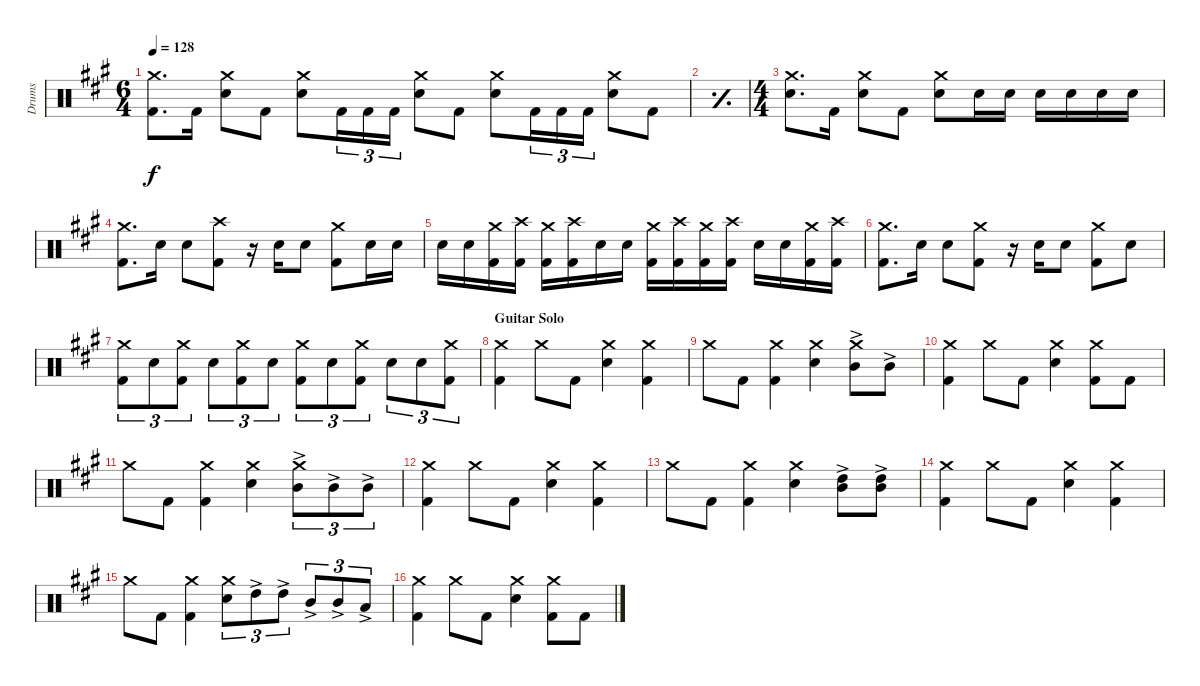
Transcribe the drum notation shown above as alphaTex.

\defaultSystemsLayout 4
\bracketExtendMode groupsimilarinstruments
\otherSystemsTrackNameOrientation horizontal
\track ("Drumkit" "Drums") {multiBarRest instrument percussion}
\staff {score}
\articulation defaults
\ts (6 4)
\beaming (8 2 2 2 2 2 2)
\tempo 128
\clef neutral
\ks a
("Crash medium (hit)"{acc forcenatural} "Kick (hit) 2"{acc forcenatural}).8{d dy f} "Kick (hit) 2"{acc forcenatural}.16 ("Crash medium (hit)"{acc forcenatural} "Snare (hit) 2"{acc forcenatural}).8 "Kick (hit) 2"{acc forcenatural}.8 ("Crash medium (hit)"{acc forcenatural} "Snare (hit) 2"{acc forcenatural}).8{beam merge} "Kick (hit) 2"{acc forcenatural}.16{tu (3 2)} "Kick (hit) 2"{acc forcenatural}.16{tu (3 2)} "Kick (hit) 2"{acc forcenatural}.16{tu (3 2)} ("Crash medium (hit)"{acc forcenatural} "Snare (hit) 2"{acc forcenatural}).8 "Kick (hit) 2"{acc forcenatural}.8 ("Crash medium (hit)"{acc forcenatural} "Snare (hit) 2"{acc forcenatural}).8{beam merge} "Kick (hit) 2"{acc forcenatural}.16{tu (3 2)} "Kick (hit) 2"{acc forcenatural}.16{tu (3 2)} "Kick (hit) 2"{acc forcenatural}.16{tu (3 2)} ("Crash medium (hit)"{acc forcenatural} "Snare (hit) 2"{acc forcenatural}).8 "Kick (hit) 2"{acc forcenatural}.8 |
\simile simple
|
\ts (4 4)
\beaming (8 2 2 2 2 2 2)
\simile none
("Crash medium (hit)"{acc forcenatural} "Snare (hit) 2"{acc forcenatural}).8{d} "Kick (hit) 2"{acc forcenatural}.16 ("Crash medium (hit)"{acc forcenatural} "Snare (hit) 2"{acc forcenatural}).8 "Kick (hit) 2"{acc forcenatural}.8 ("Crash medium (hit)"{acc forcenatural} "Snare (hit) 2"{acc forcenatural}).8 "Snare (hit) 2"{acc forcenatural}.16 "Snare (hit) 2"{acc forcenatural}.16 "Snare (hit) 2"{acc forcenatural}.16 "Snare (hit) 2"{acc forcenatural}.16 "Snare (hit) 2"{acc forcenatural}.16 "Snare (hit) 2"{acc forcenatural}.16 |
("Crash medium (hit)"{acc forcenatural} "Kick (hit) 2"{acc forcenatural}).8{d} "Snare (hit) 2"{acc forcenatural}.16 "Snare (hit) 2"{acc forcenatural}.8 ("Kick (hit) 2"{acc forcenatural} "Crash high (hit)"{acc forcenatural}).8 r.16 "Snare (hit) 2"{acc forcenatural}.16 "Snare (hit) 2"{acc forcenatural}.8 ("Crash medium (hit)"{acc forcenatural} "Kick (hit) 2"{acc forcenatural}).8 "Snare (hit) 2"{acc forcenatural}.16 "Snare (hit) 2"{acc forcenatural}.16 |
"Snare (hit) 2"{acc forcenatural}.16 "Snare (hit) 2"{acc forcenatural}.16 ("Crash medium (hit)"{acc forcenatural} "Kick (hit) 2"{acc forcenatural}).16 ("Kick (hit) 2"{acc forcenatural} "Crash high (hit)"{acc forcenatural}).16 ("Kick (hit) 2"{acc forcenatural} "Crash medium (hit)"{acc forcenatural}).16 ("Kick (hit) 2"{acc forcenatural} "Crash high (hit)"{acc forcenatural}).16 "Snare (hit) 2"{acc forcenatural}.16 "Snare (hit) 2"{acc forcenatural}.16 ("Crash medium (hit)"{acc forcenatural} "Kick (hit) 2"{acc forcenatural}).16 ("Kick (hit) 2"{acc forcenatural} "Crash high (hit)"{acc forcenatural}).16 ("Kick (hit) 2"{acc forcenatural} "Crash medium (hit)"{acc forcenatural}).16 ("Kick (hit) 2"{acc forcenatural} "Crash high (hit)"{acc forcenatural}).16 "Snare (hit) 2"{acc forcenatural}.16 "Snare (hit) 2"{acc forcenatural}.16 ("Crash medium (hit)"{acc forcenatural} "Kick (hit) 2"{acc forcenatural}).16 ("Kick (hit) 2"{acc forcenatural} "Crash high (hit)"{acc forcenatural}).16 |
("Crash medium (hit)"{acc forcenatural} "Kick (hit) 2"{acc forcenatural}).8{d} "Snare (hit) 2"{acc forcenatural}.16 "Snare (hit) 2"{acc forcenatural}.8 ("Crash medium (hit)"{acc forcenatural} "Kick (hit) 2"{acc forcenatural}).8 r.16 "Snare (hit) 2"{acc forcenatural}.16 "Snare (hit) 2"{acc forcenatural}.8 ("Crash medium (hit)"{acc forcenatural} "Kick (hit) 2"{acc forcenatural}).8 "Snare (hit) 2"{acc forcenatural}.8 |
("Crash medium (hit)"{acc forcenatural} "Kick (hit) 2"{acc forcenatural}).8{tu (3 2)} "Snare (hit) 2"{acc forcenatural}.8{tu (3 2)} ("Crash medium (hit)"{acc forcenatural} "Kick (hit) 2"{acc forcenatural}).8{tu (3 2)} "Snare (hit) 2"{acc forcenatural}.8{tu (3 2)} ("Crash medium (hit)"{acc forcenatural} "Kick (hit) 2"{acc forcenatural}).8{tu (3 2)} "Snare (hit) 2"{acc forcenatural}.8{tu (3 2)} ("Crash medium (hit)"{acc forcenatural} "Kick (hit) 2"{acc forcenatural}).8{tu (3 2)} "Snare (hit) 2"{acc forcenatural}.8{tu (3 2)} ("Crash medium (hit)"{acc forcenatural} "Kick (hit) 2"{acc forcenatural}).8{tu (3 2)} "Snare (hit) 2"{acc forcenatural}.8{tu (3 2)} "Snare (hit) 2"{acc forcenatural}.8{tu (3 2)} ("Crash medium (hit)"{acc forcenatural} "Kick (hit) 2"{acc forcenatural}).8{tu (3 2)} |
\section ("" "Guitar Solo")
("Crash medium (hit)"{acc forcenatural} "Kick (hit) 2"{acc forcenatural}).4 "Crash medium (hit)"{acc forcenatural}.8 "Kick (hit) 2"{acc forcenatural}.8 ("Crash medium (hit)"{acc forcenatural} "Snare (hit) 2"{acc forcenatural}).4 ("Crash medium (hit)"{acc forcenatural} "Kick (hit) 2"{acc forcenatural}).4 |
"Crash medium (hit)"{acc forcenatural}.8 "Kick (hit) 2"{acc forcenatural}.8 ("Crash medium (hit)"{acc forcenatural} "Kick (hit) 2"{acc forcenatural}).4 ("Crash medium (hit)"{acc forcenatural} "Snare (hit) 2"{acc forcenatural}).4 ("Crash medium (hit)"{acc forcenatural} "Mid Tom (hit)"{ac acc forcenatural}).8 "Mid Tom (hit)"{ac acc forcenatural}.8 |
("Crash medium (hit)"{acc forcenatural} "Kick (hit) 2"{acc forcenatural}).4 "Crash medium (hit)"{acc forcenatural}.8 "Kick (hit) 2"{acc forcenatural}.8 ("Crash medium (hit)"{acc forcenatural} "Snare (hit) 2"{acc forcenatural}).4 ("Crash medium (hit)"{acc forcenatural} "Kick (hit) 2"{acc forcenatural}).8 "Kick (hit) 2"{acc forcenatural}.8 |
"Crash medium (hit)"{acc forcenatural}.8 "Kick (hit) 2"{acc forcenatural}.8 ("Crash medium (hit)"{acc forcenatural} "Kick (hit) 2"{acc forcenatural}).4 ("Crash medium (hit)"{acc forcenatural} "Snare (hit) 2"{acc forcenatural}).4 ("Crash medium (hit)"{acc forcenatural} "Mid Tom (hit)"{ac acc forcenatural}).8{tu (3 2)} "Mid Tom (hit)"{ac acc forcenatural}.8{tu (3 2)} "Mid Tom (hit)"{ac acc forcenatural}.8{tu (3 2)} |
("Crash medium (hit)"{acc forcenatural} "Kick (hit) 2"{acc forcenatural}).4 "Crash medium (hit)"{acc forcenatural}.8 "Kick (hit) 2"{acc forcenatural}.8 ("Crash medium (hit)"{acc forcenatural} "Snare (hit) 2"{acc forcenatural}).4 ("Crash medium (hit)"{acc forcenatural} "Kick (hit) 2"{acc forcenatural}).4 |
"Crash medium (hit)"{acc forcenatural}.8 "Kick (hit) 2"{acc forcenatural}.8 ("Crash medium (hit)"{acc forcenatural} "Kick (hit) 2"{acc forcenatural}).4 ("Crash medium (hit)"{acc forcenatural} "Snare (hit) 2"{acc forcenatural}).4 ("High Tom (hit)"{ac acc forcenatural} "Mid Tom (hit)"{ac acc forcenatural}).8 ("High Tom (hit)"{ac acc forcenatural} "Mid Tom (hit)"{ac acc forcenatural}).8 |
("Crash medium (hit)"{acc forcenatural} "Kick (hit) 2"{acc forcenatural}).4 "Crash medium (hit)"{acc forcenatural}.8 "Kick (hit) 2"{acc forcenatural}.8 ("Crash medium (hit)"{acc forcenatural} "Snare (hit) 2"{acc forcenatural}).4 ("Crash medium (hit)"{acc forcenatural} "Kick (hit) 2"{acc forcenatural}).4 |
"Crash medium (hit)"{acc forcenatural}.8 "Kick (hit) 2"{acc forcenatural}.8 ("Crash medium (hit)"{acc forcenatural} "Kick (hit) 2"{acc forcenatural}).4 ("Crash medium (hit)"{acc forcenatural} "Snare (hit) 2"{acc forcenatural}).8{tu (3 2)} "High Tom (hit)"{ac acc forcenatural}.8{tu (3 2)} "High Tom (hit)"{ac acc forcenatural}.8{tu (3 2)} "Mid Tom (hit)"{ac acc forcenatural}.8{tu (3 2)} "Mid Tom (hit)"{ac acc forcenatural}.8{tu (3 2)} "Low Tom (hit)"{ac acc forcenatural}.8{tu (3 2)} |
("Crash medium (hit)"{acc forcenatural} "Kick (hit) 2"{acc forcenatural}).4 "Crash medium (hit)"{acc forcenatural}.8 "Kick (hit) 2"{acc forcenatural}.8 ("Crash medium (hit)"{acc forcenatural} "Snare (hit) 2"{acc forcenatural}).4 ("Crash medium (hit)"{acc forcenatural} "Kick (hit) 2"{acc forcenatural}).8 "Kick (hit) 2"{acc forcenatural}.8
